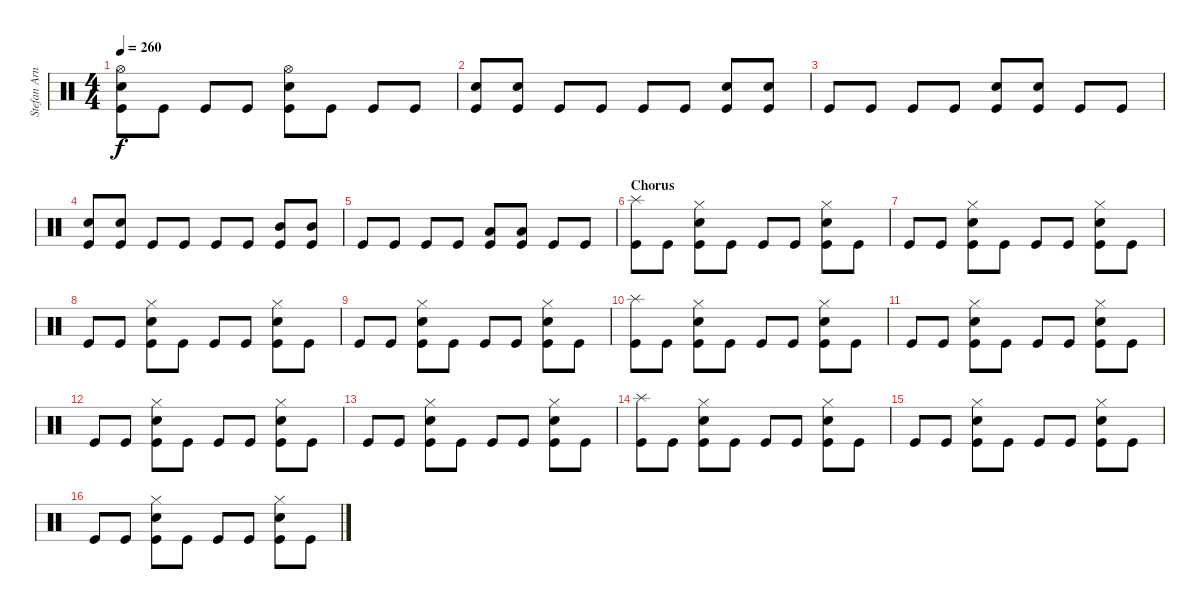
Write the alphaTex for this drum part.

\track ("Stefan Arnold" "Stefan Arn") {instrument percussion}
\staff {score}
\articulation defaults
\ts (4 4)
\tempo 260
\clef neutral
\ks c
("Hi-Hat (open)" "Electric Snare (hit)" "Kick (hit)").8{dy f} "Kick (hit)".8 "Kick (hit)".8 "Kick (hit)".8 ("Hi-Hat (open)" "Electric Snare (hit)" "Kick (hit)").8 "Kick (hit)".8 "Kick (hit)".8 "Kick (hit)".8 |
("Electric Snare (hit)" "Kick (hit)").8 ("Electric Snare (hit)" "Kick (hit)").8 "Kick (hit)".8 "Kick (hit)".8 "Kick (hit)".8 "Kick (hit)".8 ("Electric Snare (hit)" "Kick (hit)").8 ("Electric Snare (hit)" "Kick (hit)").8 |
"Kick (hit)".8 "Kick (hit)".8 "Kick (hit)".8 "Kick (hit)".8 ("Electric Snare (hit)" "Kick (hit)").8 ("Electric Snare (hit)" "Kick (hit)").8 "Kick (hit)".8 "Kick (hit)".8 |
("Electric Snare (hit)" "Kick (hit)").8 ("Electric Snare (hit)" "Kick (hit)").8 "Kick (hit)".8 "Kick (hit)".8 "Kick (hit)".8 "Kick (hit)".8 ("Mid Tom (hit)" "Kick (hit)").8 ("Mid Tom (hit)" "Kick (hit)").8 |
"Kick (hit)".8 "Kick (hit)".8 "Kick (hit)".8 "Kick (hit)".8 ("Low Tom (hit)" "Kick (hit)").8 ("Low Tom (hit)" "Kick (hit)").8 "Kick (hit)".8 "Kick (hit)".8 |
\section ("" "Chorus")
("Splash (hit)" "Kick (hit)").8 "Kick (hit)".8 ("Hi-Hat (closed)" "Electric Snare (hit)" "Kick (hit)").8 "Kick (hit)".8 "Kick (hit)".8 "Kick (hit)".8 ("Hi-Hat (closed)" "Electric Snare (hit)" "Kick (hit)").8 "Kick (hit)".8 |
"Kick (hit)".8 "Kick (hit)".8 ("Hi-Hat (closed)" "Electric Snare (hit)" "Kick (hit)").8 "Kick (hit)".8 "Kick (hit)".8 "Kick (hit)".8 ("Hi-Hat (closed)" "Electric Snare (hit)" "Kick (hit)").8 "Kick (hit)".8 |
"Kick (hit)".8 "Kick (hit)".8 ("Hi-Hat (closed)" "Electric Snare (hit)" "Kick (hit)").8 "Kick (hit)".8 "Kick (hit)".8 "Kick (hit)".8 ("Hi-Hat (closed)" "Electric Snare (hit)" "Kick (hit)").8 "Kick (hit)".8 |
"Kick (hit)".8 "Kick (hit)".8 ("Hi-Hat (closed)" "Electric Snare (hit)" "Kick (hit)").8 "Kick (hit)".8 "Kick (hit)".8 "Kick (hit)".8 ("Hi-Hat (closed)" "Electric Snare (hit)" "Kick (hit)").8 "Kick (hit)".8 |
("Splash (hit)" "Kick (hit)").8 "Kick (hit)".8 ("Hi-Hat (closed)" "Electric Snare (hit)" "Kick (hit)").8 "Kick (hit)".8 "Kick (hit)".8 "Kick (hit)".8 ("Hi-Hat (closed)" "Electric Snare (hit)" "Kick (hit)").8 "Kick (hit)".8 |
"Kick (hit)".8 "Kick (hit)".8 ("Hi-Hat (closed)" "Electric Snare (hit)" "Kick (hit)").8 "Kick (hit)".8 "Kick (hit)".8 "Kick (hit)".8 ("Hi-Hat (closed)" "Electric Snare (hit)" "Kick (hit)").8 "Kick (hit)".8 |
"Kick (hit)".8 "Kick (hit)".8 ("Hi-Hat (closed)" "Electric Snare (hit)" "Kick (hit)").8 "Kick (hit)".8 "Kick (hit)".8 "Kick (hit)".8 ("Hi-Hat (closed)" "Electric Snare (hit)" "Kick (hit)").8 "Kick (hit)".8 |
"Kick (hit)".8 "Kick (hit)".8 ("Hi-Hat (closed)" "Electric Snare (hit)" "Kick (hit)").8 "Kick (hit)".8 "Kick (hit)".8 "Kick (hit)".8 ("Hi-Hat (closed)" "Electric Snare (hit)" "Kick (hit)").8 "Kick (hit)".8 |
("Splash (hit)" "Kick (hit)").8 "Kick (hit)".8 ("Hi-Hat (closed)" "Electric Snare (hit)" "Kick (hit)").8 "Kick (hit)".8 "Kick (hit)".8 "Kick (hit)".8 ("Hi-Hat (closed)" "Electric Snare (hit)" "Kick (hit)").8 "Kick (hit)".8 |
"Kick (hit)".8 "Kick (hit)".8 ("Hi-Hat (closed)" "Electric Snare (hit)" "Kick (hit)").8 "Kick (hit)".8 "Kick (hit)".8 "Kick (hit)".8 ("Hi-Hat (closed)" "Electric Snare (hit)" "Kick (hit)").8 "Kick (hit)".8 |
"Kick (hit)".8 "Kick (hit)".8 ("Hi-Hat (closed)" "Electric Snare (hit)" "Kick (hit)").8 "Kick (hit)".8 "Kick (hit)".8 "Kick (hit)".8 ("Hi-Hat (closed)" "Electric Snare (hit)" "Kick (hit)").8 "Kick (hit)".8
